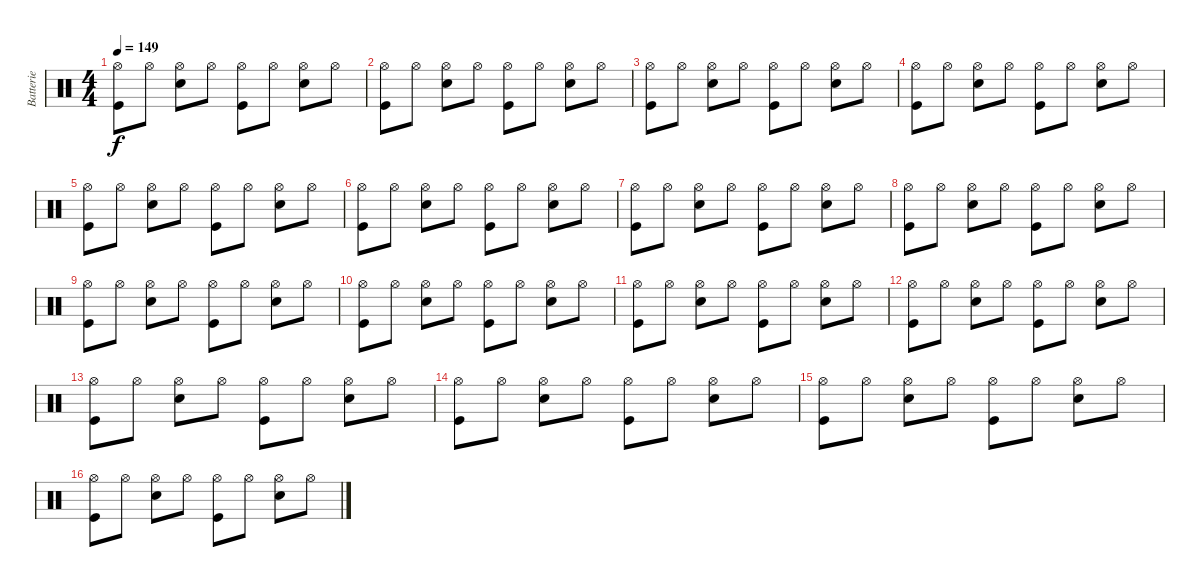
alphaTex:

\track ("Batterie" "Batterie") {instrument percussion}
\staff {score}
\articulation defaults
\ts (4 4)
\tempo 149
\clef neutral
\ks c
("Hi-Hat (open)" "Kick (hit)").8{dy f} "Hi-Hat (open)".8 ("Hi-Hat (open)" "Snare (hit) 2").8 "Hi-Hat (open)".8 ("Hi-Hat (open)" "Kick (hit)").8 "Hi-Hat (open)".8 ("Hi-Hat (open)" "Snare (hit) 2").8 "Hi-Hat (open)".8 |
("Hi-Hat (open)" "Kick (hit)").8 "Hi-Hat (open)".8 ("Hi-Hat (open)" "Snare (hit) 2").8 "Hi-Hat (open)".8 ("Hi-Hat (open)" "Kick (hit)").8 "Hi-Hat (open)".8 ("Hi-Hat (open)" "Snare (hit) 2").8 "Hi-Hat (open)".8 |
("Hi-Hat (open)" "Kick (hit)").8 "Hi-Hat (open)".8 ("Hi-Hat (open)" "Snare (hit) 2").8 "Hi-Hat (open)".8 ("Hi-Hat (open)" "Kick (hit)").8 "Hi-Hat (open)".8 ("Hi-Hat (open)" "Snare (hit) 2").8 "Hi-Hat (open)".8 |
("Hi-Hat (open)" "Kick (hit)").8 "Hi-Hat (open)".8 ("Hi-Hat (open)" "Snare (hit) 2").8 "Hi-Hat (open)".8 ("Hi-Hat (open)" "Kick (hit)").8 "Hi-Hat (open)".8 ("Hi-Hat (open)" "Snare (hit) 2").8 "Hi-Hat (open)".8 |
("Hi-Hat (open)" "Kick (hit)").8 "Hi-Hat (open)".8 ("Hi-Hat (open)" "Snare (hit) 2").8 "Hi-Hat (open)".8 ("Hi-Hat (open)" "Kick (hit)").8 "Hi-Hat (open)".8 ("Hi-Hat (open)" "Snare (hit) 2").8 "Hi-Hat (open)".8 |
("Hi-Hat (open)" "Kick (hit)").8 "Hi-Hat (open)".8 ("Hi-Hat (open)" "Snare (hit) 2").8 "Hi-Hat (open)".8 ("Hi-Hat (open)" "Kick (hit)").8 "Hi-Hat (open)".8 ("Hi-Hat (open)" "Snare (hit) 2").8 "Hi-Hat (open)".8 |
("Hi-Hat (open)" "Kick (hit)").8 "Hi-Hat (open)".8 ("Hi-Hat (open)" "Snare (hit) 2").8 "Hi-Hat (open)".8 ("Hi-Hat (open)" "Kick (hit)").8 "Hi-Hat (open)".8 ("Hi-Hat (open)" "Snare (hit) 2").8 "Hi-Hat (open)".8 |
("Hi-Hat (open)" "Kick (hit)").8 "Hi-Hat (open)".8 ("Hi-Hat (open)" "Snare (hit) 2").8 "Hi-Hat (open)".8 ("Hi-Hat (open)" "Kick (hit)").8 "Hi-Hat (open)".8 ("Hi-Hat (open)" "Snare (hit) 2").8 "Hi-Hat (open)".8 |
("Hi-Hat (open)" "Kick (hit)").8 "Hi-Hat (open)".8 ("Hi-Hat (open)" "Snare (hit) 2").8 "Hi-Hat (open)".8 ("Hi-Hat (open)" "Kick (hit)").8 "Hi-Hat (open)".8 ("Hi-Hat (open)" "Snare (hit) 2").8 "Hi-Hat (open)".8 |
("Hi-Hat (open)" "Kick (hit)").8 "Hi-Hat (open)".8 ("Hi-Hat (open)" "Snare (hit) 2").8 "Hi-Hat (open)".8 ("Hi-Hat (open)" "Kick (hit)").8 "Hi-Hat (open)".8 ("Hi-Hat (open)" "Snare (hit) 2").8 "Hi-Hat (open)".8 |
("Hi-Hat (open)" "Kick (hit)").8 "Hi-Hat (open)".8 ("Hi-Hat (open)" "Snare (hit) 2").8 "Hi-Hat (open)".8 ("Hi-Hat (open)" "Kick (hit)").8 "Hi-Hat (open)".8 ("Hi-Hat (open)" "Snare (hit) 2").8 "Hi-Hat (open)".8 |
("Hi-Hat (open)" "Kick (hit)").8 "Hi-Hat (open)".8 ("Hi-Hat (open)" "Snare (hit) 2").8 "Hi-Hat (open)".8 ("Hi-Hat (open)" "Kick (hit)").8 "Hi-Hat (open)".8 ("Hi-Hat (open)" "Snare (hit) 2").8 "Hi-Hat (open)".8 |
("Hi-Hat (open)" "Kick (hit)").8 "Hi-Hat (open)".8 ("Hi-Hat (open)" "Snare (hit) 2").8 "Hi-Hat (open)".8 ("Hi-Hat (open)" "Kick (hit)").8 "Hi-Hat (open)".8 ("Hi-Hat (open)" "Snare (hit) 2").8 "Hi-Hat (open)".8 |
("Hi-Hat (open)" "Kick (hit)").8 "Hi-Hat (open)".8 ("Hi-Hat (open)" "Snare (hit) 2").8 "Hi-Hat (open)".8 ("Hi-Hat (open)" "Kick (hit)").8 "Hi-Hat (open)".8 ("Hi-Hat (open)" "Snare (hit) 2").8 "Hi-Hat (open)".8 |
("Hi-Hat (open)" "Kick (hit)").8 "Hi-Hat (open)".8 ("Hi-Hat (open)" "Snare (hit) 2").8 "Hi-Hat (open)".8 ("Hi-Hat (open)" "Kick (hit)").8 "Hi-Hat (open)".8 ("Hi-Hat (open)" "Snare (hit) 2").8 "Hi-Hat (open)".8 |
("Hi-Hat (open)" "Kick (hit)").8 "Hi-Hat (open)".8 ("Hi-Hat (open)" "Snare (hit) 2").8 "Hi-Hat (open)".8 ("Hi-Hat (open)" "Kick (hit)").8 "Hi-Hat (open)".8 ("Hi-Hat (open)" "Snare (hit) 2").8 "Hi-Hat (open)".8
